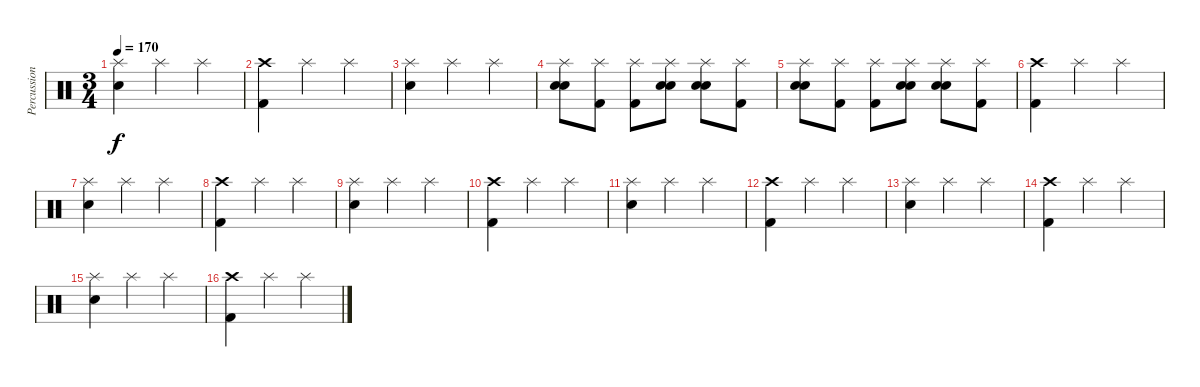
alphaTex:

\track ("Percussion" "Percussion") {instrument percussion}
\staff {score}
\articulation defaults
\ts (3 4)
\tempo 170
\clef neutral
\ks c
("Splash (hit)" "Electric Snare (hit)").4{dy f} "Splash (hit)".4 "Splash (hit)".4 |
("Crash high (hit)" "Kick (hit) 2").4 "Splash (hit)".4 "Splash (hit)".4 |
("Splash (hit)" "Electric Snare (hit)").4 "Splash (hit)".4 "Splash (hit)".4 |
("Splash (hit)" "Electric Snare (hit)" "Electric Snare (hit)").8 ("Splash (hit)" "Kick (hit) 2").8 ("Splash (hit)" "Kick (hit) 2").8 ("Splash (hit)" "Electric Snare (hit)" "Electric Snare (hit)").8 ("Splash (hit)" "Electric Snare (hit)" "Electric Snare (hit)").8 ("Splash (hit)" "Kick (hit) 2").8 |
("Splash (hit)" "Electric Snare (hit)" "Electric Snare (hit)").8 ("Splash (hit)" "Kick (hit) 2").8 ("Splash (hit)" "Kick (hit) 2").8 ("Splash (hit)" "Electric Snare (hit)" "Electric Snare (hit)").8 ("Splash (hit)" "Electric Snare (hit)" "Electric Snare (hit)").8 ("Splash (hit)" "Kick (hit) 2").8 |
("Crash high (hit)" "Kick (hit) 2").4 "Splash (hit)".4 "Splash (hit)".4 |
("Splash (hit)" "Electric Snare (hit)").4 "Splash (hit)".4 "Splash (hit)".4 |
("Crash high (hit)" "Kick (hit) 2").4 "Splash (hit)".4 "Splash (hit)".4 |
("Splash (hit)" "Electric Snare (hit)").4 "Splash (hit)".4 "Splash (hit)".4 |
("Crash high (hit)" "Kick (hit) 2").4 "Splash (hit)".4 "Splash (hit)".4 |
("Splash (hit)" "Electric Snare (hit)").4 "Splash (hit)".4 "Splash (hit)".4 |
("Crash high (hit)" "Kick (hit) 2").4 "Splash (hit)".4 "Splash (hit)".4 |
("Splash (hit)" "Electric Snare (hit)").4 "Splash (hit)".4 "Splash (hit)".4 |
("Crash high (hit)" "Kick (hit) 2").4 "Splash (hit)".4 "Splash (hit)".4 |
("Splash (hit)" "Electric Snare (hit)").4 "Splash (hit)".4 "Splash (hit)".4 |
("Crash high (hit)" "Kick (hit) 2").4 "Splash (hit)".4 "Splash (hit)".4
